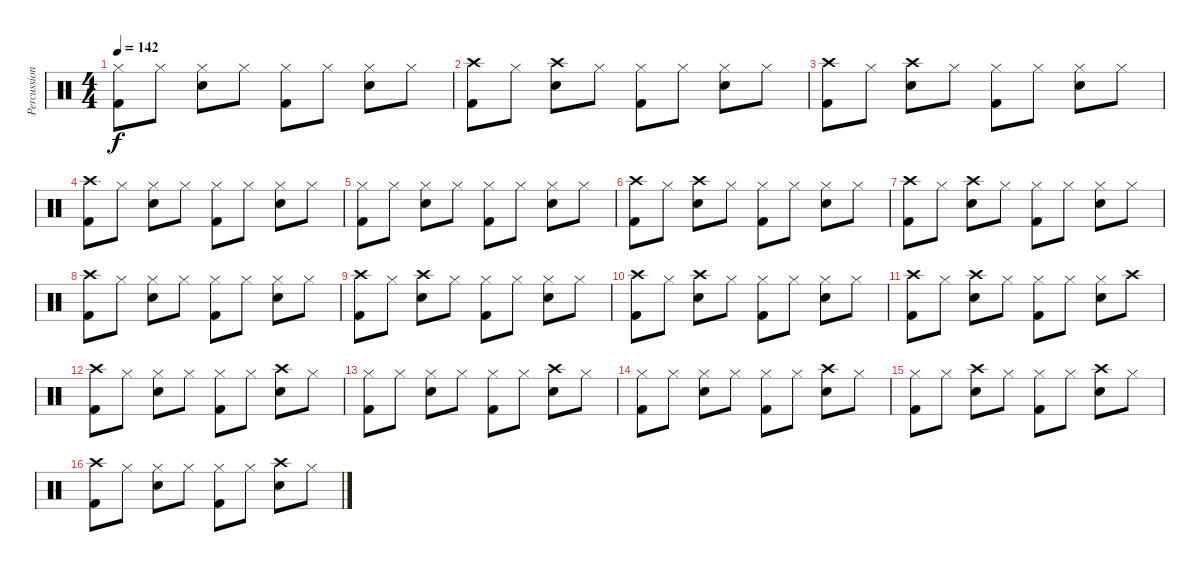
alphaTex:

\track ("Percussion" "Percussion") {instrument percussion}
\staff {score}
\articulation defaults
\ts (4 4)
\tempo 142
\clef neutral
\ks c
("Hi-Hat (closed)" "Kick (hit) 2").8{dy f} "Hi-Hat (closed)".8 ("Hi-Hat (closed)" "Electric Snare (hit)").8 "Hi-Hat (closed)".8 ("Hi-Hat (closed)" "Kick (hit) 2").8 "Hi-Hat (closed)".8 ("Hi-Hat (closed)" "Electric Snare (hit)").8 "Hi-Hat (closed)".8 |
("Crash high (hit)" "Kick (hit) 2").8 "Hi-Hat (closed)".8 ("Crash high (hit)" "Electric Snare (hit)").8 "Hi-Hat (closed)".8 ("Hi-Hat (closed)" "Kick (hit) 2").8 "Hi-Hat (closed)".8 ("Hi-Hat (closed)" "Electric Snare (hit)").8 "Hi-Hat (closed)".8 |
("Crash high (hit)" "Kick (hit) 2").8 "Hi-Hat (closed)".8 ("Crash high (hit)" "Electric Snare (hit)").8 "Hi-Hat (closed)".8 ("Hi-Hat (closed)" "Kick (hit) 2").8 "Hi-Hat (closed)".8 ("Hi-Hat (closed)" "Electric Snare (hit)").8 "Hi-Hat (closed)".8 |
("Crash high (hit)" "Kick (hit) 2").8 "Hi-Hat (closed)".8 ("Hi-Hat (closed)" "Electric Snare (hit)").8 "Hi-Hat (closed)".8 ("Hi-Hat (closed)" "Kick (hit) 2").8 "Hi-Hat (closed)".8 ("Hi-Hat (closed)" "Electric Snare (hit)").8 "Hi-Hat (closed)".8 |
("Hi-Hat (closed)" "Kick (hit) 2").8 "Hi-Hat (closed)".8 ("Hi-Hat (closed)" "Electric Snare (hit)").8 "Hi-Hat (closed)".8 ("Hi-Hat (closed)" "Kick (hit) 2").8 "Hi-Hat (closed)".8 ("Hi-Hat (closed)" "Electric Snare (hit)").8 "Hi-Hat (closed)".8 |
("Crash high (hit)" "Kick (hit) 2").8 "Hi-Hat (closed)".8 ("Crash high (hit)" "Electric Snare (hit)").8 "Hi-Hat (closed)".8 ("Hi-Hat (closed)" "Kick (hit) 2").8 "Hi-Hat (closed)".8 ("Hi-Hat (closed)" "Electric Snare (hit)").8 "Hi-Hat (closed)".8 |
("Crash high (hit)" "Kick (hit) 2").8 "Hi-Hat (closed)".8 ("Crash high (hit)" "Electric Snare (hit)").8 "Hi-Hat (closed)".8 ("Hi-Hat (closed)" "Kick (hit) 2").8 "Hi-Hat (closed)".8 ("Hi-Hat (closed)" "Electric Snare (hit)").8 "Hi-Hat (closed)".8 |
("Crash high (hit)" "Kick (hit) 2").8 "Hi-Hat (closed)".8 ("Hi-Hat (closed)" "Electric Snare (hit)").8 "Hi-Hat (closed)".8 ("Hi-Hat (closed)" "Kick (hit) 2").8 "Hi-Hat (closed)".8 ("Hi-Hat (closed)" "Electric Snare (hit)").8 "Hi-Hat (closed)".8 |
("Crash high (hit)" "Kick (hit) 2").8 "Hi-Hat (closed)".8 ("Crash high (hit)" "Electric Snare (hit)").8 "Hi-Hat (closed)".8 ("Hi-Hat (closed)" "Kick (hit) 2").8 "Hi-Hat (closed)".8 ("Hi-Hat (closed)" "Electric Snare (hit)").8 "Hi-Hat (closed)".8 |
("Crash high (hit)" "Kick (hit) 2").8 "Hi-Hat (closed)".8 ("Crash high (hit)" "Electric Snare (hit)").8 "Hi-Hat (closed)".8 ("Hi-Hat (closed)" "Kick (hit) 2").8 "Hi-Hat (closed)".8 ("Hi-Hat (closed)" "Electric Snare (hit)").8 "Hi-Hat (closed)".8 |
("Crash high (hit)" "Kick (hit) 2").8 "Hi-Hat (closed)".8 ("Crash high (hit)" "Electric Snare (hit)").8 "Hi-Hat (closed)".8 ("Hi-Hat (closed)" "Kick (hit) 2").8 "Hi-Hat (closed)".8 ("Hi-Hat (closed)" "Electric Snare (hit)").8 "Crash high (hit)".8 |
("Crash high (hit)" "Kick (hit) 2").8 "Hi-Hat (closed)".8 ("Hi-Hat (closed)" "Electric Snare (hit)").8 "Hi-Hat (closed)".8 ("Hi-Hat (closed)" "Kick (hit) 2").8 "Hi-Hat (closed)".8 ("Crash high (hit)" "Electric Snare (hit)").8 "Hi-Hat (closed)".8 |
("Hi-Hat (closed)" "Kick (hit) 2").8 "Hi-Hat (closed)".8 ("Hi-Hat (closed)" "Electric Snare (hit)").8 "Hi-Hat (closed)".8 ("Hi-Hat (closed)" "Kick (hit) 2").8 "Hi-Hat (closed)".8 ("Crash high (hit)" "Electric Snare (hit)").8 "Hi-Hat (closed)".8 |
("Hi-Hat (closed)" "Kick (hit) 2").8 "Hi-Hat (closed)".8 ("Hi-Hat (closed)" "Electric Snare (hit)").8 "Hi-Hat (closed)".8 ("Hi-Hat (closed)" "Kick (hit) 2").8 "Hi-Hat (closed)".8 ("Crash high (hit)" "Electric Snare (hit)").8 "Hi-Hat (closed)".8 |
("Hi-Hat (closed)" "Kick (hit) 2").8 "Hi-Hat (closed)".8 ("Crash high (hit)" "Electric Snare (hit)").8 "Hi-Hat (closed)".8 ("Hi-Hat (closed)" "Kick (hit) 2").8 "Hi-Hat (closed)".8 ("Crash high (hit)" "Electric Snare (hit)").8 "Hi-Hat (closed)".8 |
("Crash high (hit)" "Kick (hit) 2").8 "Hi-Hat (closed)".8 ("Hi-Hat (closed)" "Electric Snare (hit)").8 "Hi-Hat (closed)".8 ("Hi-Hat (closed)" "Kick (hit) 2").8 "Hi-Hat (closed)".8 ("Crash high (hit)" "Electric Snare (hit)").8 "Hi-Hat (closed)".8
